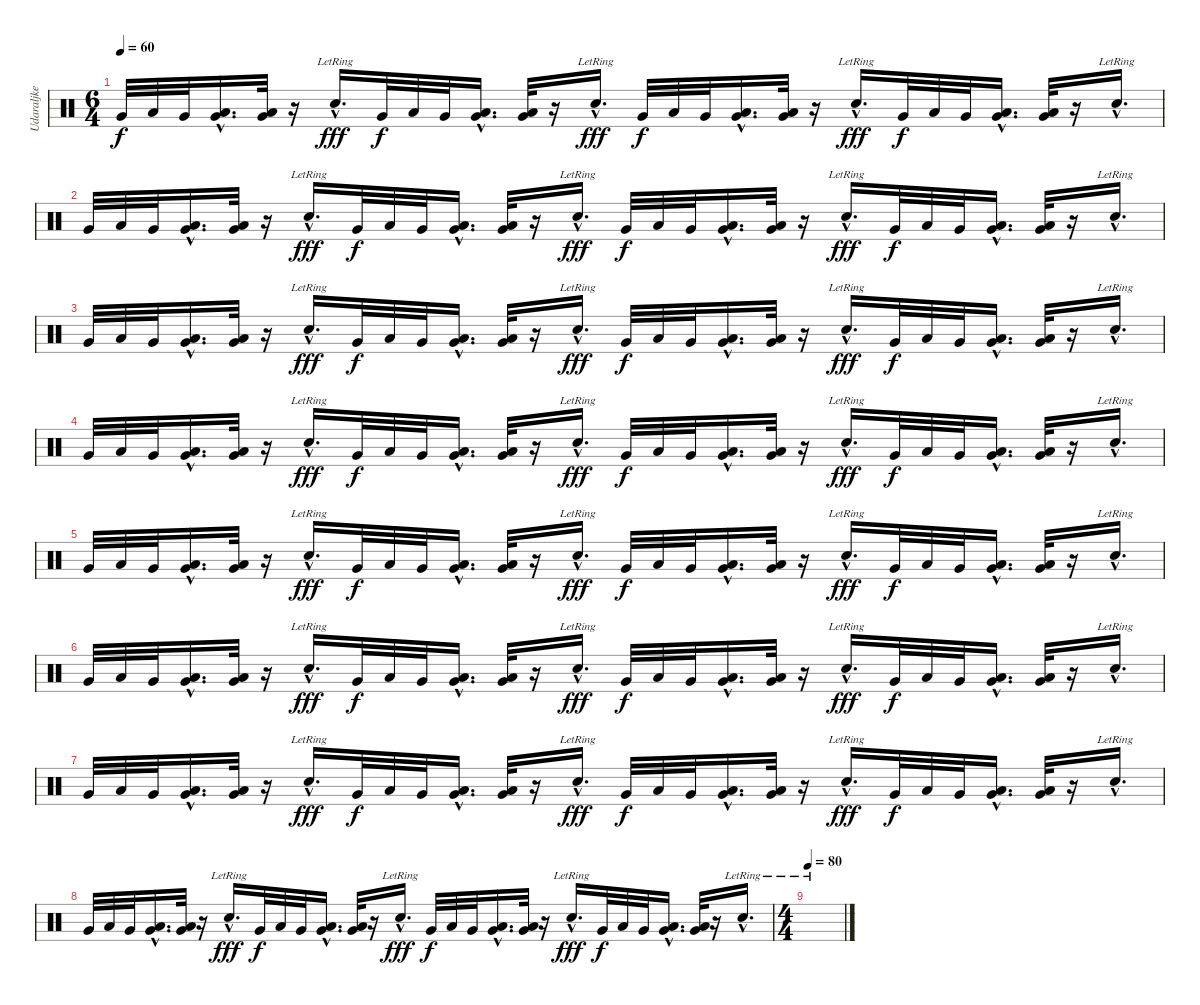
\track ("Udaraljke" "Udaraljke") {instrument percussion}
\staff {score}
\articulation defaults
\ts (6 4)
\tempo 60
\clef neutral
\ks c "Very Low Tom (hit)".32{dy f} "Low Tom (hit)".32 "Very Low Tom (hit)".32
("Very Low Tom (hit)"{hac} "Low Floor Tom (hit)"{hac}).16{d} ("Very Low Tom (hit)" "Low Floor Tom (hit)").32 r.16 "Snare (hit) 2"{hac lr}.16{d dy fff} "Very Low Tom (hit)".32{dy f} "Low Tom (hit)".32 "Very Low Tom (hit)".32 ("Low Floor Tom (hit)"{hac} "Very Low Tom (hit)"{hac}).16{d} ("Very Low Tom (hit)" "Low Floor Tom (hit)").32 r.16 "Snare (hit) 2"{hac lr}.16{d dy fff} "Very Low Tom (hit)".32{dy f} "Low Tom (hit)".32 "Very Low Tom (hit)".32 ("Low Floor Tom (hit)"{hac} "Very Low Tom (hit)"{hac}).16{d} ("Very Low Tom (hit)" "Low Floor Tom (hit)").32 r.16 "Snare (hit) 2"{hac lr}.16{d dy fff} "Very Low Tom (hit)".32{dy f} "Low Tom (hit)".32 "Very Low Tom (hit)".32 ("Low Floor Tom (hit)"{hac} "Very Low Tom (hit)"{hac}).16{d} ("Very Low Tom (hit)" "Low Floor Tom (hit)").32 r.16 "Snare (hit) 2"{hac lr}.16{d} |
"Very Low Tom (hit)".32 "Low Tom (hit)".32 "Very Low Tom (hit)".32 ("Very Low Tom (hit)"{hac} "Low Floor Tom (hit)"{hac}).16{d} ("Very Low Tom (hit)" "Low Floor Tom (hit)").32 r.16 "Snare (hit) 2"{hac lr}.16{d dy fff} "Very Low Tom (hit)".32{dy f} "Low Tom (hit)".32 "Very Low Tom (hit)".32 ("Low Floor Tom (hit)"{hac} "Very Low Tom (hit)"{hac}).16{d} ("Very Low Tom (hit)" "Low Floor Tom (hit)").32 r.16 "Snare (hit) 2"{hac lr}.16{d dy fff} "Very Low Tom (hit)".32{dy f} "Low Tom (hit)".32 "Very Low Tom (hit)".32 ("Low Floor Tom (hit)"{hac} "Very Low Tom (hit)"{hac}).16{d} ("Very Low Tom (hit)" "Low Floor Tom (hit)").32 r.16 "Snare (hit) 2"{hac lr}.16{d dy fff} "Very Low Tom (hit)".32{dy f} "Low Tom (hit)".32 "Very Low Tom (hit)".32 ("Low Floor Tom (hit)"{hac} "Very Low Tom (hit)"{hac}).16{d} ("Very Low Tom (hit)" "Low Floor Tom (hit)").32 r.16 "Snare (hit) 2"{hac lr}.16{d} |
"Very Low Tom (hit)".32 "Low Tom (hit)".32 "Very Low Tom (hit)".32 ("Very Low Tom (hit)"{hac} "Low Floor Tom (hit)"{hac}).16{d} ("Very Low Tom (hit)" "Low Floor Tom (hit)").32 r.16 "Snare (hit) 2"{hac lr}.16{d dy fff} "Very Low Tom (hit)".32{dy f} "Low Tom (hit)".32 "Very Low Tom (hit)".32 ("Low Floor Tom (hit)"{hac} "Very Low Tom (hit)"{hac}).16{d} ("Very Low Tom (hit)" "Low Floor Tom (hit)").32 r.16 "Snare (hit) 2"{hac lr}.16{d dy fff} "Very Low Tom (hit)".32{dy f} "Low Tom (hit)".32 "Very Low Tom (hit)".32 ("Low Floor Tom (hit)"{hac} "Very Low Tom (hit)"{hac}).16{d} ("Very Low Tom (hit)" "Low Floor Tom (hit)").32 r.16 "Snare (hit) 2"{hac lr}.16{d dy fff} "Very Low Tom (hit)".32{dy f} "Low Tom (hit)".32 "Very Low Tom (hit)".32 ("Low Floor Tom (hit)"{hac} "Very Low Tom (hit)"{hac}).16{d} ("Very Low Tom (hit)" "Low Floor Tom (hit)").32 r.16 "Snare (hit) 2"{hac lr}.16{d} |
"Very Low Tom (hit)".32 "Low Tom (hit)".32 "Very Low Tom (hit)".32 ("Very Low Tom (hit)"{hac} "Low Floor Tom (hit)"{hac}).16{d} ("Very Low Tom (hit)" "Low Floor Tom (hit)").32 r.16 "Snare (hit) 2"{hac lr}.16{d dy fff} "Very Low Tom (hit)".32{dy f} "Low Tom (hit)".32 "Very Low Tom (hit)".32 ("Low Floor Tom (hit)"{hac} "Very Low Tom (hit)"{hac}).16{d} ("Very Low Tom (hit)" "Low Floor Tom (hit)").32 r.16 "Snare (hit) 2"{hac lr}.16{d dy fff} "Very Low Tom (hit)".32{dy f} "Low Tom (hit)".32 "Very Low Tom (hit)".32 ("Low Floor Tom (hit)"{hac} "Very Low Tom (hit)"{hac}).16{d} ("Very Low Tom (hit)" "Low Floor Tom (hit)").32 r.16 "Snare (hit) 2"{hac lr}.16{d dy fff} "Very Low Tom (hit)".32{dy f} "Low Tom (hit)".32 "Very Low Tom (hit)".32 ("Low Floor Tom (hit)"{hac} "Very Low Tom (hit)"{hac}).16{d} ("Very Low Tom (hit)" "Low Floor Tom (hit)").32 r.16 "Snare (hit) 2"{hac lr}.16{d} |
"Very Low Tom (hit)".32 "Low Tom (hit)".32 "Very Low Tom (hit)".32 ("Very Low Tom (hit)"{hac} "Low Floor Tom (hit)"{hac}).16{d} ("Very Low Tom (hit)" "Low Floor Tom (hit)").32 r.16 "Snare (hit) 2"{hac lr}.16{d dy fff} "Very Low Tom (hit)".32{dy f} "Low Tom (hit)".32 "Very Low Tom (hit)".32 ("Low Floor Tom (hit)"{hac} "Very Low Tom (hit)"{hac}).16{d} ("Very Low Tom (hit)" "Low Floor Tom (hit)").32 r.16 "Snare (hit) 2"{hac lr}.16{d dy fff} "Very Low Tom (hit)".32{dy f} "Low Tom (hit)".32 "Very Low Tom (hit)".32 ("Low Floor Tom (hit)"{hac} "Very Low Tom (hit)"{hac}).16{d} ("Very Low Tom (hit)" "Low Floor Tom (hit)").32 r.16 "Snare (hit) 2"{hac lr}.16{d dy fff} "Very Low Tom (hit)".32{dy f} "Low Tom (hit)".32 "Very Low Tom (hit)".32 ("Low Floor Tom (hit)"{hac} "Very Low Tom (hit)"{hac}).16{d} ("Very Low Tom (hit)" "Low Floor Tom (hit)").32 r.16 "Snare (hit) 2"{hac lr}.16{d} |
"Very Low Tom (hit)".32 "Low Tom (hit)".32 "Very Low Tom (hit)".32 ("Very Low Tom (hit)"{hac} "Low Floor Tom (hit)"{hac}).16{d} ("Very Low Tom (hit)" "Low Floor Tom (hit)").32 r.16 "Snare (hit) 2"{hac lr}.16{d dy fff} "Very Low Tom (hit)".32{dy f} "Low Tom (hit)".32 "Very Low Tom (hit)".32 ("Low Floor Tom (hit)"{hac} "Very Low Tom (hit)"{hac}).16{d} ("Very Low Tom (hit)" "Low Floor Tom (hit)").32 r.16 "Snare (hit) 2"{hac lr}.16{d dy fff} "Very Low Tom (hit)".32{dy f} "Low Tom (hit)".32 "Very Low Tom (hit)".32 ("Low Floor Tom (hit)"{hac} "Very Low Tom (hit)"{hac}).16{d} ("Very Low Tom (hit)" "Low Floor Tom (hit)").32 r.16 "Snare (hit) 2"{hac lr}.16{d dy fff} "Very Low Tom (hit)".32{dy f} "Low Tom (hit)".32 "Very Low Tom (hit)".32 ("Low Floor Tom (hit)"{hac} "Very Low Tom (hit)"{hac}).16{d} ("Very Low Tom (hit)" "Low Floor Tom (hit)").32 r.16 "Snare (hit) 2"{hac lr}.16{d} |
"Very Low Tom (hit)".32 "Low Tom (hit)".32 "Very Low Tom (hit)".32 ("Very Low Tom (hit)"{hac} "Low Floor Tom (hit)"{hac}).16{d} ("Very Low Tom (hit)" "Low Floor Tom (hit)").32 r.16 "Snare (hit) 2"{hac lr}.16{d dy fff} "Very Low Tom (hit)".32{dy f} "Low Tom (hit)".32 "Very Low Tom (hit)".32 ("Low Floor Tom (hit)"{hac} "Very Low Tom (hit)"{hac}).16{d} ("Very Low Tom (hit)" "Low Floor Tom (hit)").32 r.16 "Snare (hit) 2"{hac lr}.16{d dy fff} "Very Low Tom (hit)".32{dy f} "Low Tom (hit)".32 "Very Low Tom (hit)".32 ("Low Floor Tom (hit)"{hac} "Very Low Tom (hit)"{hac}).16{d} ("Very Low Tom (hit)" "Low Floor Tom (hit)").32 r.16 "Snare (hit) 2"{hac lr}.16{d dy fff} "Very Low Tom (hit)".32{dy f} "Low Tom (hit)".32 "Very Low Tom (hit)".32 ("Low Floor Tom (hit)"{hac} "Very Low Tom (hit)"{hac}).16{d} ("Very Low Tom (hit)" "Low Floor Tom (hit)").32 r.16 "Snare (hit) 2"{hac lr}.16{d} |
"Very Low Tom (hit)".32 "Low Tom (hit)".32 "Very Low Tom (hit)".32 ("Very Low Tom (hit)"{hac} "Low Floor Tom (hit)"{hac}).16{d} ("Very Low Tom (hit)" "Low Floor Tom (hit)").32 r.16 "Snare (hit) 2"{hac lr}.16{d dy fff} "Very Low Tom (hit)".32{dy f} "Low Tom (hit)".32 "Very Low Tom (hit)".32 ("Low Floor Tom (hit)"{hac} "Very Low Tom (hit)"{hac}).16{d} ("Very Low Tom (hit)" "Low Floor Tom (hit)").32 r.16 "Snare (hit) 2"{hac lr}.16{d dy fff} "Very Low Tom (hit)".32{dy f} "Low Tom (hit)".32 "Very Low Tom (hit)".32 ("Low Floor Tom (hit)"{hac} "Very Low Tom (hit)"{hac}).16{d} ("Very Low Tom (hit)" "Low Floor Tom (hit)").32 r.16 "Snare (hit) 2"{hac lr}.16{d dy fff} "Very Low Tom (hit)".32{dy f} "Low Tom (hit)".32 "Very Low Tom (hit)".32 ("Low Floor Tom (hit)"{hac} "Very Low Tom (hit)"{hac}).16{d} ("Very Low Tom (hit)" "Low Floor Tom (hit)").32 r.16 "Snare (hit) 2"{hac lr}.16{d} |
\ts (4 4)
\tempo 80
